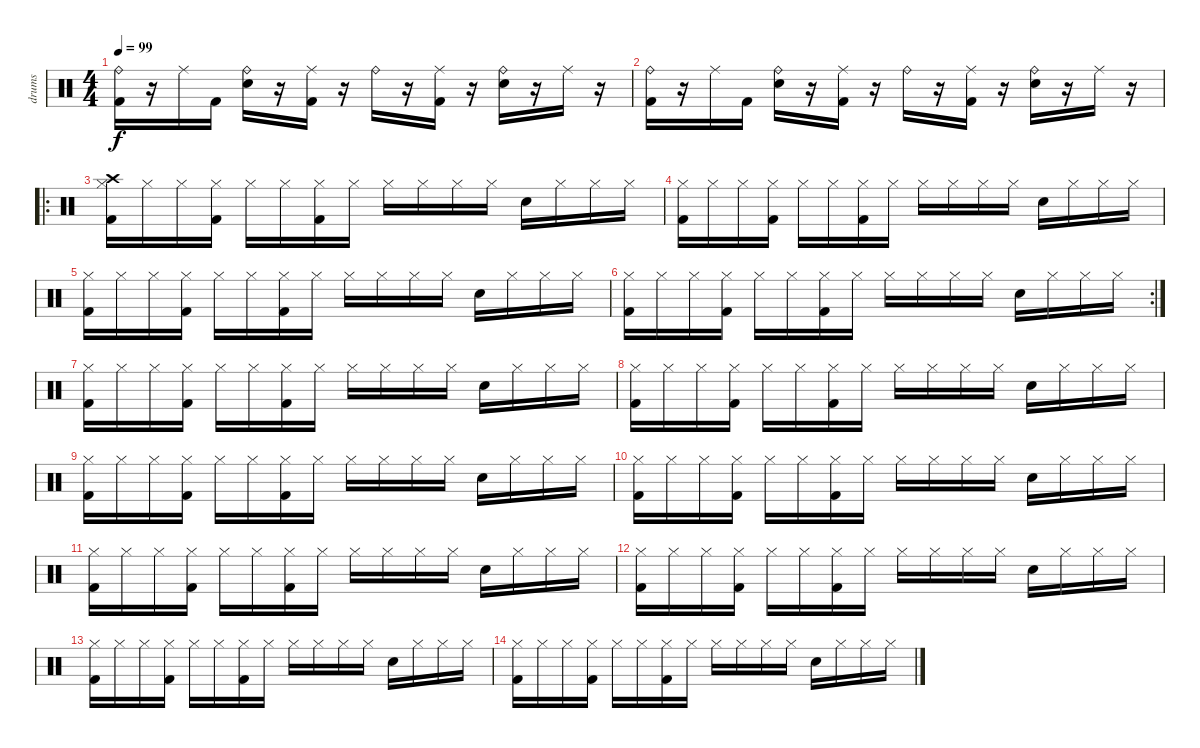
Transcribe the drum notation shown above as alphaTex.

\track ("drums" "drums") {instrument percussion}
\staff {score}
\articulation defaults
\ts (4 4)
\tempo 99
\clef neutral
\ks c
("Ride (bell)" "Kick (hit) 2").16{dy f} r.16 "Ride (middle)".16 "Kick (hit) 2".16 ("Ride (bell)" "Snare (hit) 2").16 r.16 ("Ride (middle)" "Kick (hit) 2").16 r.16 "Ride (bell)"{nh}.16 r.16 ("Ride (middle)" "Kick (hit) 2").16 r.16 ("Ride (bell)" "Snare (hit) 2").16 r.16 "Ride (middle)".16 r.16 |
("Ride (bell)" "Kick (hit) 2").16 r.16 "Ride (middle)".16 "Kick (hit) 2".16 ("Ride (bell)" "Snare (hit) 2").16 r.16 ("Ride (middle)" "Kick (hit) 2").16 r.16 "Ride (bell)"{nh}.16 r.16 ("Ride (middle)" "Kick (hit) 2").16 r.16 ("Ride (bell)" "Snare (hit) 2").16 r.16 "Ride (middle)".16 r.16 |
\ro
("Crash high (hit)" "Hi-Hat (closed)" "Kick (hit) 2").16 "Hi-Hat (closed)".16 "Hi-Hat (closed)".16 ("Hi-Hat (closed)" "Kick (hit) 2").16 "Hi-Hat (closed)".16 "Hi-Hat (closed)".16 ("Hi-Hat (closed)" "Kick (hit) 2").16 "Hi-Hat (closed)".16 "Hi-Hat (closed)"{nh}.16 "Hi-Hat (closed)".16 "Hi-Hat (closed)".16 "Hi-Hat (closed)".16 "Snare (hit) 2".16 "Hi-Hat (closed)".16 "Hi-Hat (closed)".16 "Hi-Hat (closed)".16 |
("Hi-Hat (closed)" "Kick (hit) 2").16 "Hi-Hat (closed)".16 "Hi-Hat (closed)".16 ("Hi-Hat (closed)" "Kick (hit) 2").16 "Hi-Hat (closed)".16 "Hi-Hat (closed)".16 ("Hi-Hat (closed)" "Kick (hit) 2").16 "Hi-Hat (closed)".16 "Hi-Hat (closed)"{nh}.16 "Hi-Hat (closed)".16 "Hi-Hat (closed)".16 "Hi-Hat (closed)".16 "Snare (hit) 2".16 "Hi-Hat (closed)".16 "Hi-Hat (closed)".16 "Hi-Hat (closed)".16 |
("Hi-Hat (closed)" "Kick (hit) 2").16 "Hi-Hat (closed)".16 "Hi-Hat (closed)".16 ("Hi-Hat (closed)" "Kick (hit) 2").16 "Hi-Hat (closed)".16 "Hi-Hat (closed)".16 ("Hi-Hat (closed)" "Kick (hit) 2").16 "Hi-Hat (closed)".16 "Hi-Hat (closed)"{nh}.16 "Hi-Hat (closed)".16 "Hi-Hat (closed)".16 "Hi-Hat (closed)".16 "Snare (hit) 2".16 "Hi-Hat (closed)".16 "Hi-Hat (closed)".16 "Hi-Hat (closed)".16 |
\rc 2
("Hi-Hat (closed)" "Kick (hit) 2").16 "Hi-Hat (closed)".16 "Hi-Hat (closed)".16 ("Hi-Hat (closed)" "Kick (hit) 2").16 "Hi-Hat (closed)".16 "Hi-Hat (closed)".16 ("Hi-Hat (closed)" "Kick (hit) 2").16 "Hi-Hat (closed)".16 "Hi-Hat (closed)"{nh}.16 "Hi-Hat (closed)".16 "Hi-Hat (closed)".16 "Hi-Hat (closed)".16 "Snare (hit) 2".16 "Hi-Hat (closed)".16 "Hi-Hat (closed)".16 "Hi-Hat (closed)".16 |
("Hi-Hat (closed)" "Kick (hit) 2").16 "Hi-Hat (closed)".16 "Hi-Hat (closed)".16 ("Hi-Hat (closed)" "Kick (hit) 2").16 "Hi-Hat (closed)".16 "Hi-Hat (closed)".16 ("Hi-Hat (closed)" "Kick (hit) 2").16 "Hi-Hat (closed)".16 "Hi-Hat (closed)"{nh}.16 "Hi-Hat (closed)".16 "Hi-Hat (closed)".16 "Hi-Hat (closed)".16 "Snare (hit) 2".16 "Hi-Hat (closed)".16 "Hi-Hat (closed)".16 "Hi-Hat (closed)".16 |
("Hi-Hat (closed)" "Kick (hit) 2").16 "Hi-Hat (closed)".16 "Hi-Hat (closed)".16 ("Hi-Hat (closed)" "Kick (hit) 2").16 "Hi-Hat (closed)".16 "Hi-Hat (closed)".16 ("Hi-Hat (closed)" "Kick (hit) 2").16 "Hi-Hat (closed)".16 "Hi-Hat (closed)"{nh}.16 "Hi-Hat (closed)".16 "Hi-Hat (closed)".16 "Hi-Hat (closed)".16 "Snare (hit) 2".16 "Hi-Hat (closed)".16 "Hi-Hat (closed)".16 "Hi-Hat (closed)".16 |
("Hi-Hat (closed)" "Kick (hit) 2").16 "Hi-Hat (closed)".16 "Hi-Hat (closed)".16 ("Hi-Hat (closed)" "Kick (hit) 2").16 "Hi-Hat (closed)".16 "Hi-Hat (closed)".16 ("Hi-Hat (closed)" "Kick (hit) 2").16 "Hi-Hat (closed)".16 "Hi-Hat (closed)"{nh}.16 "Hi-Hat (closed)".16 "Hi-Hat (closed)".16 "Hi-Hat (closed)".16 "Snare (hit) 2".16 "Hi-Hat (closed)".16 "Hi-Hat (closed)".16 "Hi-Hat (closed)".16 |
("Hi-Hat (closed)" "Kick (hit) 2").16 "Hi-Hat (closed)".16 "Hi-Hat (closed)".16 ("Hi-Hat (closed)" "Kick (hit) 2").16 "Hi-Hat (closed)".16 "Hi-Hat (closed)".16 ("Hi-Hat (closed)" "Kick (hit) 2").16 "Hi-Hat (closed)".16 "Hi-Hat (closed)"{nh}.16 "Hi-Hat (closed)".16 "Hi-Hat (closed)".16 "Hi-Hat (closed)".16 "Snare (hit) 2".16 "Hi-Hat (closed)".16 "Hi-Hat (closed)".16 "Hi-Hat (closed)".16 |
("Hi-Hat (closed)" "Kick (hit) 2").16{volume 3} "Hi-Hat (closed)".16 "Hi-Hat (closed)".16 ("Hi-Hat (closed)" "Kick (hit) 2").16 "Hi-Hat (closed)".16 "Hi-Hat (closed)".16 ("Hi-Hat (closed)" "Kick (hit) 2").16 "Hi-Hat (closed)".16 "Hi-Hat (closed)"{nh}.16 "Hi-Hat (closed)".16 "Hi-Hat (closed)".16 "Hi-Hat (closed)".16 "Snare (hit) 2".16 "Hi-Hat (closed)".16 "Hi-Hat (closed)".16 "Hi-Hat (closed)".16 |
("Hi-Hat (closed)" "Kick (hit) 2").16 "Hi-Hat (closed)".16 "Hi-Hat (closed)".16 ("Hi-Hat (closed)" "Kick (hit) 2").16 "Hi-Hat (closed)".16 "Hi-Hat (closed)".16 ("Hi-Hat (closed)" "Kick (hit) 2").16 "Hi-Hat (closed)".16 "Hi-Hat (closed)"{nh}.16 "Hi-Hat (closed)".16 "Hi-Hat (closed)".16 "Hi-Hat (closed)".16 "Snare (hit) 2".16 "Hi-Hat (closed)".16 "Hi-Hat (closed)".16 "Hi-Hat (closed)".16 |
("Hi-Hat (closed)" "Kick (hit) 2").16 "Hi-Hat (closed)".16 "Hi-Hat (closed)".16 ("Hi-Hat (closed)" "Kick (hit) 2").16 "Hi-Hat (closed)".16 "Hi-Hat (closed)".16 ("Hi-Hat (closed)" "Kick (hit) 2").16 "Hi-Hat (closed)".16 "Hi-Hat (closed)"{nh}.16 "Hi-Hat (closed)".16 "Hi-Hat (closed)".16 "Hi-Hat (closed)".16 "Snare (hit) 2".16 "Hi-Hat (closed)".16 "Hi-Hat (closed)".16 "Hi-Hat (closed)".16 |
("Hi-Hat (closed)" "Kick (hit) 2").16 "Hi-Hat (closed)".16 "Hi-Hat (closed)".16 ("Hi-Hat (closed)" "Kick (hit) 2").16 "Hi-Hat (closed)".16 "Hi-Hat (closed)".16 ("Hi-Hat (closed)" "Kick (hit) 2").16 "Hi-Hat (closed)".16 "Hi-Hat (closed)"{nh}.16 "Hi-Hat (closed)".16 "Hi-Hat (closed)".16 "Hi-Hat (closed)".16 "Snare (hit) 2".16 "Hi-Hat (closed)".16 "Hi-Hat (closed)".16 "Hi-Hat (closed)".16
